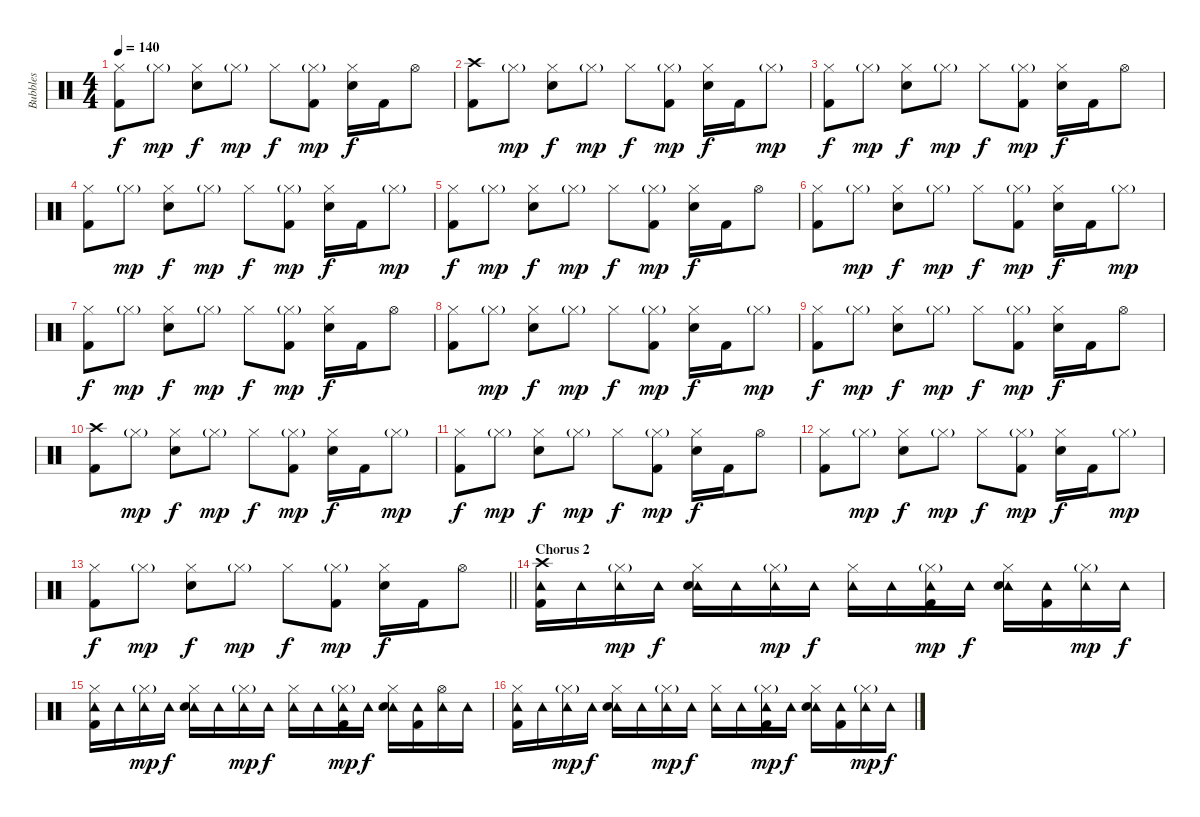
\track ("Bubbles" "Bubbles") {instrument percussion}
\staff {score}
\articulation defaults
\ts (4 4)
\tempo 140
\clef neutral
\ks c
("Hi-Hat (closed)" "Kick (hit) 2").8{dy f} "Hi-Hat (closed)"{g}.8{dy mp} ("Hi-Hat (closed)" "Snare (hit) 2").8{dy f} "Hi-Hat (closed)"{g}.8{dy mp} "Hi-Hat (closed)".8{dy f} ("Hi-Hat (closed)"{g} "Kick (hit) 2").8{dy mp} ("Hi-Hat (closed)" "Snare (hit) 2").16{dy f} "Kick (hit) 2".16 "Hi-Hat (open)".8 |
("Crash high (hit)" "Kick (hit) 2").8 "Hi-Hat (closed)"{g}.8{dy mp} ("Hi-Hat (closed)" "Snare (hit) 2").8{dy f} "Hi-Hat (closed)"{g}.8{dy mp} "Hi-Hat (closed)".8{dy f} ("Hi-Hat (closed)"{g} "Kick (hit) 2").8{dy mp} ("Hi-Hat (closed)" "Snare (hit) 2").16{dy f} "Kick (hit) 2".16 "Hi-Hat (closed)"{g}.8{dy mp} |
("Hi-Hat (closed)" "Kick (hit) 2").8{dy f} "Hi-Hat (closed)"{g}.8{dy mp} ("Hi-Hat (closed)" "Snare (hit) 2").8{dy f} "Hi-Hat (closed)"{g}.8{dy mp} "Hi-Hat (closed)".8{dy f} ("Hi-Hat (closed)"{g} "Kick (hit) 2").8{dy mp} ("Hi-Hat (closed)" "Snare (hit) 2").16{dy f} "Kick (hit) 2".16 "Hi-Hat (open)".8 |
("Hi-Hat (closed)" "Kick (hit) 2").8 "Hi-Hat (closed)"{g}.8{dy mp} ("Hi-Hat (closed)" "Snare (hit) 2").8{dy f} "Hi-Hat (closed)"{g}.8{dy mp} "Hi-Hat (closed)".8{dy f} ("Hi-Hat (closed)"{g} "Kick (hit) 2").8{dy mp} ("Hi-Hat (closed)" "Snare (hit) 2").16{dy f} "Kick (hit) 2".16 "Hi-Hat (closed)"{g}.8{dy mp} |
("Hi-Hat (closed)" "Kick (hit) 2").8{dy f} "Hi-Hat (closed)"{g}.8{dy mp} ("Hi-Hat (closed)" "Snare (hit) 2").8{dy f} "Hi-Hat (closed)"{g}.8{dy mp} "Hi-Hat (closed)".8{dy f} ("Hi-Hat (closed)"{g} "Kick (hit) 2").8{dy mp} ("Hi-Hat (closed)" "Snare (hit) 2").16{dy f} "Kick (hit) 2".16 "Hi-Hat (open)".8 |
("Hi-Hat (closed)" "Kick (hit) 2").8 "Hi-Hat (closed)"{g}.8{dy mp} ("Hi-Hat (closed)" "Snare (hit) 2").8{dy f} "Hi-Hat (closed)"{g}.8{dy mp} "Hi-Hat (closed)".8{dy f} ("Hi-Hat (closed)"{g} "Kick (hit) 2").8{dy mp} ("Hi-Hat (closed)" "Snare (hit) 2").16{dy f} "Kick (hit) 2".16 "Hi-Hat (closed)"{g}.8{dy mp} |
("Hi-Hat (closed)" "Kick (hit) 2").8{dy f} "Hi-Hat (closed)"{g}.8{dy mp} ("Hi-Hat (closed)" "Snare (hit) 2").8{dy f} "Hi-Hat (closed)"{g}.8{dy mp} "Hi-Hat (closed)".8{dy f} ("Hi-Hat (closed)"{g} "Kick (hit) 2").8{dy mp} ("Hi-Hat (closed)" "Snare (hit) 2").16{dy f} "Kick (hit) 2".16 "Hi-Hat (open)".8 |
("Hi-Hat (closed)" "Kick (hit) 2").8 "Hi-Hat (closed)"{g}.8{dy mp} ("Hi-Hat (closed)" "Snare (hit) 2").8{dy f} "Hi-Hat (closed)"{g}.8{dy mp} "Hi-Hat (closed)".8{dy f} ("Hi-Hat (closed)"{g} "Kick (hit) 2").8{dy mp} ("Hi-Hat (closed)" "Snare (hit) 2").16{dy f} "Kick (hit) 2".16 "Hi-Hat (closed)"{g}.8{dy mp} |
("Hi-Hat (closed)" "Kick (hit) 2").8{dy f} "Hi-Hat (closed)"{g}.8{dy mp} ("Hi-Hat (closed)" "Snare (hit) 2").8{dy f} "Hi-Hat (closed)"{g}.8{dy mp} "Hi-Hat (closed)".8{dy f} ("Hi-Hat (closed)"{g} "Kick (hit) 2").8{dy mp} ("Hi-Hat (closed)" "Snare (hit) 2").16{dy f} "Kick (hit) 2".16 "Hi-Hat (open)".8 |
("Crash high (hit)" "Kick (hit) 2").8 "Hi-Hat (closed)"{g}.8{dy mp} ("Hi-Hat (closed)" "Snare (hit) 2").8{dy f} "Hi-Hat (closed)"{g}.8{dy mp} "Hi-Hat (closed)".8{dy f} ("Hi-Hat (closed)"{g} "Kick (hit) 2").8{dy mp} ("Hi-Hat (closed)" "Snare (hit) 2").16{dy f} "Kick (hit) 2".16 "Hi-Hat (closed)"{g}.8{dy mp} |
("Hi-Hat (closed)" "Kick (hit) 2").8{dy f} "Hi-Hat (closed)"{g}.8{dy mp} ("Hi-Hat (closed)" "Snare (hit) 2").8{dy f} "Hi-Hat (closed)"{g}.8{dy mp} "Hi-Hat (closed)".8{dy f} ("Hi-Hat (closed)"{g} "Kick (hit) 2").8{dy mp} ("Hi-Hat (closed)" "Snare (hit) 2").16{dy f} "Kick (hit) 2".16 "Hi-Hat (open)".8 |
("Hi-Hat (closed)" "Kick (hit) 2").8 "Hi-Hat (closed)"{g}.8{dy mp} ("Hi-Hat (closed)" "Snare (hit) 2").8{dy f} "Hi-Hat (closed)"{g}.8{dy mp} "Hi-Hat (closed)".8{dy f} ("Hi-Hat (closed)"{g} "Kick (hit) 2").8{dy mp} ("Hi-Hat (closed)" "Snare (hit) 2").16{dy f} "Kick (hit) 2".16 "Hi-Hat (closed)"{g}.8{dy mp} |
\barLineRight lightlight
("Hi-Hat (closed)" "Kick (hit) 2").8{dy f} "Hi-Hat (closed)"{g}.8{dy mp} ("Hi-Hat (closed)" "Snare (hit) 2").8{dy f} "Hi-Hat (closed)"{g}.8{dy mp} "Hi-Hat (closed)".8{dy f} ("Hi-Hat (closed)"{g} "Kick (hit) 2").8{dy mp} ("Hi-Hat (closed)" "Snare (hit) 2").16{dy f} "Kick (hit) 2".16 "Hi-Hat (open)".8 |
\section ("" "Chorus 2")
("Crash high (hit)" "Tambourine (hit)" "Kick (hit) 2").16 "Tambourine (hit)".16 ("Tambourine (hit)" "Hi-Hat (closed)"{g}).16{dy mp} "Tambourine (hit)".16{dy f} ("Tambourine (hit)" "Hi-Hat (closed)" "Snare (hit) 2").16 "Tambourine (hit)".16 ("Tambourine (hit)" "Hi-Hat (closed)"{g}).16{dy mp} "Tambourine (hit)".16{dy f} ("Tambourine (hit)" "Hi-Hat (closed)").16 "Tambourine (hit)".16 ("Tambourine (hit)" "Hi-Hat (closed)"{g} "Kick (hit) 2").16{dy mp} "Tambourine (hit)".16{dy f} ("Tambourine (hit)" "Hi-Hat (closed)" "Snare (hit) 2").16 ("Tambourine (hit)" "Kick (hit) 2").16 ("Tambourine (hit)" "Hi-Hat (closed)"{g}).16{dy mp} "Tambourine (hit)".16{dy f} |
("Tambourine (hit)" "Hi-Hat (closed)" "Kick (hit) 2").16 "Tambourine (hit)".16 ("Tambourine (hit)" "Hi-Hat (closed)"{g}).16{dy mp} "Tambourine (hit)".16{dy f} ("Tambourine (hit)" "Hi-Hat (closed)" "Snare (hit) 2").16 "Tambourine (hit)".16 ("Tambourine (hit)" "Hi-Hat (closed)"{g}).16{dy mp} "Tambourine (hit)".16{dy f} ("Tambourine (hit)" "Hi-Hat (closed)").16 "Tambourine (hit)".16 ("Tambourine (hit)" "Hi-Hat (closed)"{g} "Kick (hit) 2").16{dy mp} "Tambourine (hit)".16{dy f} ("Tambourine (hit)" "Hi-Hat (closed)" "Snare (hit) 2").16 ("Tambourine (hit)" "Kick (hit) 2").16 ("Tambourine (hit)" "Hi-Hat (open)").16 "Tambourine (hit)".16 |
("Tambourine (hit)" "Hi-Hat (closed)" "Kick (hit) 2").16 "Tambourine (hit)".16 ("Tambourine (hit)" "Hi-Hat (closed)"{g}).16{dy mp} "Tambourine (hit)".16{dy f} ("Tambourine (hit)" "Hi-Hat (closed)" "Snare (hit) 2").16 "Tambourine (hit)".16 ("Tambourine (hit)" "Hi-Hat (closed)"{g}).16{dy mp} "Tambourine (hit)".16{dy f} ("Tambourine (hit)" "Hi-Hat (closed)").16 "Tambourine (hit)".16 ("Tambourine (hit)" "Hi-Hat (closed)"{g} "Kick (hit) 2").16{dy mp} "Tambourine (hit)".16{dy f} ("Tambourine (hit)" "Hi-Hat (closed)" "Snare (hit) 2").16 ("Tambourine (hit)" "Kick (hit) 2").16 ("Tambourine (hit)" "Hi-Hat (closed)"{g}).16{dy mp} "Tambourine (hit)".16{dy f}
